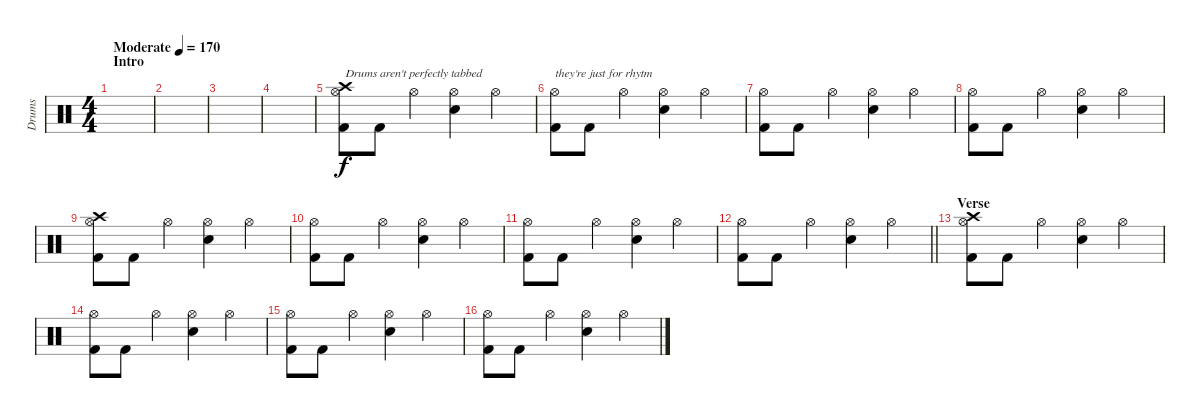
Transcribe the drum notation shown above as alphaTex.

\track ("Drums" "Drums") {instrument percussion}
\staff {score}
\articulation defaults
\ts (4 4)
\section ("" "Intro")
\tempo (170 "Moderate")
\clef neutral
\ks c
|
|
|
|
("Hi-Hat (open)" "Crash high (hit)" "Kick (hit) 2").8{txt "Drums aren't perfectly tabbed"} "Kick (hit) 2".8 "Hi-Hat (open)".4 ("Hi-Hat (open)" "Electric Snare (hit)").4 "Hi-Hat (open)".4 |
("Hi-Hat (open)" "Kick (hit) 2").8{txt "they're just for rhytm"} "Kick (hit) 2".8 "Hi-Hat (open)".4 ("Hi-Hat (open)" "Electric Snare (hit)").4 "Hi-Hat (open)".4 |
("Hi-Hat (open)" "Kick (hit) 2").8 "Kick (hit) 2".8 "Hi-Hat (open)".4 ("Hi-Hat (open)" "Electric Snare (hit)").4 "Hi-Hat (open)".4 |
("Hi-Hat (open)" "Kick (hit) 2").8 "Kick (hit) 2".8 "Hi-Hat (open)".4 ("Hi-Hat (open)" "Electric Snare (hit)").4 "Hi-Hat (open)".4 |
("Hi-Hat (open)" "Crash high (hit)" "Kick (hit) 2").8 "Kick (hit) 2".8 "Hi-Hat (open)".4 ("Hi-Hat (open)" "Electric Snare (hit)").4 "Hi-Hat (open)".4 |
("Hi-Hat (open)" "Kick (hit) 2").8 "Kick (hit) 2".8 "Hi-Hat (open)".4 ("Hi-Hat (open)" "Electric Snare (hit)").4 "Hi-Hat (open)".4 |
("Hi-Hat (open)" "Kick (hit) 2").8 "Kick (hit) 2".8 "Hi-Hat (open)".4 ("Hi-Hat (open)" "Electric Snare (hit)").4 "Hi-Hat (open)".4 |
\barLineRight lightlight
("Hi-Hat (open)" "Kick (hit) 2").8 "Kick (hit) 2".8 "Hi-Hat (open)".4 ("Hi-Hat (open)" "Electric Snare (hit)").4 "Hi-Hat (open)".4 |
\section ("" "Verse")
("Hi-Hat (open)" "Crash high (hit)" "Kick (hit) 2").8 "Kick (hit) 2".8 "Hi-Hat (open)".4 ("Hi-Hat (open)" "Electric Snare (hit)").4 "Hi-Hat (open)".4 |
("Hi-Hat (open)" "Kick (hit) 2").8 "Kick (hit) 2".8 "Hi-Hat (open)".4 ("Hi-Hat (open)" "Electric Snare (hit)").4 "Hi-Hat (open)".4 |
("Hi-Hat (open)" "Kick (hit) 2").8 "Kick (hit) 2".8 "Hi-Hat (open)".4 ("Hi-Hat (open)" "Electric Snare (hit)").4 "Hi-Hat (open)".4 |
("Hi-Hat (open)" "Kick (hit) 2").8 "Kick (hit) 2".8 "Hi-Hat (open)".4 ("Hi-Hat (open)" "Electric Snare (hit)").4 "Hi-Hat (open)".4
